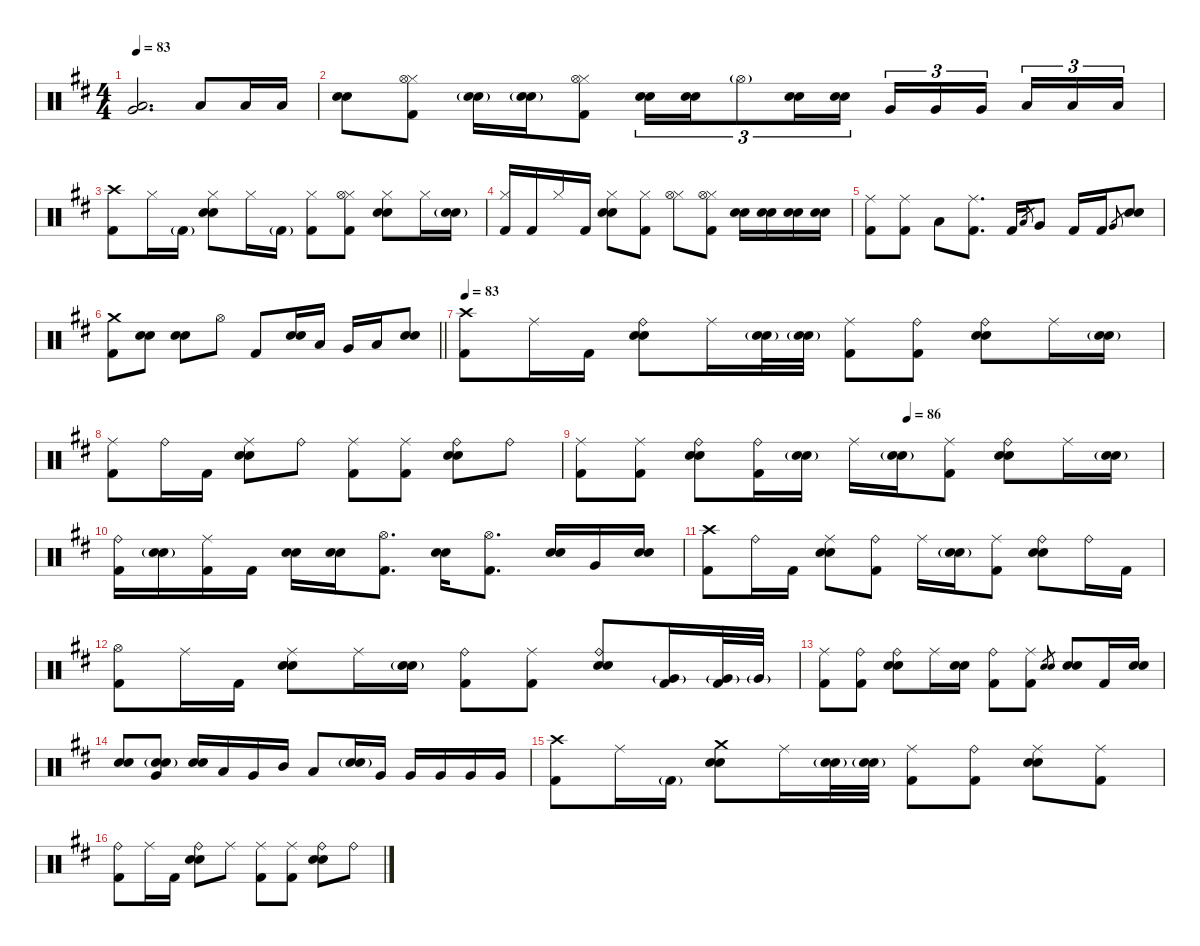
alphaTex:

\defaultSystemsLayout 4
\hideDynamics
\bracketExtendMode nobrackets
\singleTrackTrackNamePolicy hidden
\multiTrackTrackNamePolicy hidden
\firstSystemTrackNameMode fullname
\firstSystemTrackNameOrientation horizontal
\otherSystemsTrackNameOrientation horizontal
\track ("Batterie" "drm.") {defaultSystemsLayout 4 instrument percussion}
\staff {score}
\articulation defaults
\ts (4 4)
\tempo 83
\clef neutral
\ks bminor
("Very Low Tom (hit)"{acc forcenatural} "Low Floor Tom (hit)"{acc forcenatural}).2{d dy f beam Up} "Low Floor Tom (hit)"{acc forcenatural}.8{dy ff beam Up} "Low Floor Tom (hit)"{acc forcenatural}.16{dy f beam Up} "Low Floor Tom (hit)"{acc forcenatural}.16{beam Up} |
("Snare (hit) 2"{acc forcenatural} "Snare (hit) 2"{acc forcenatural}).8{dy mf beam Down} ("Hi-Hat (closed)"{acc forcenatural} "Hi-Hat (open)"{acc forcenatural} "Kick (hit) 2"{acc forcenatural}).8{dy f beam Down} ("Snare (hit) 2"{g acc forcenatural} "Snare (hit) 2"{g acc forcenatural}).16{beam Down} ("Snare (hit) 2"{g acc forcenatural} "Snare (hit) 2"{g acc forcenatural}).16{beam Down} ("Hi-Hat (closed)"{acc forcenatural} "Hi-Hat (open)"{acc forcenatural} "Kick (hit) 2"{acc forcenatural}).8{beam Down} ("Snare (hit) 2"{acc forcenatural} "Snare (hit) 2"{acc forcenatural}).16{tu (3 2) dy mf beam Down} ("Snare (hit) 2"{acc forcenatural} "Snare (hit) 2"{acc forcenatural}).16{tu (3 2) beam Down} "Hi-Hat (open)"{g acc forcenatural}.8{tu (3 2) dy f beam Down} ("Snare (hit) 2"{acc forcenatural} "Snare (hit) 2"{acc forcenatural}).16{tu (3 2) dy mf beam Down} ("Snare (hit) 2"{acc forcenatural} "Snare (hit) 2"{acc forcenatural}).16{tu (3 2) beam Down} "Very Low Tom (hit)"{acc forcenatural}.16{tu (3 2) dy f beam Up} "Very Low Tom (hit)"{acc forcenatural}.16{tu (3 2) beam Up} "Very Low Tom (hit)"{acc forcenatural}.16{tu (3 2) beam Up} "Low Floor Tom (hit)"{acc forcenatural}.16{tu (3 2) beam Up} "Low Floor Tom (hit)"{acc forcenatural}.16{tu (3 2) beam Up} "Low Floor Tom (hit)"{acc forcenatural}.16{tu (3 2) beam Up} |
("Crash high (hit)"{acc forcenatural} "Kick (hit) 2"{acc forcenatural}).8{dy mf beam Down} "Hi-Hat (closed)"{acc forcenatural}.16{dy f beam Down} "Kick (hit) 2"{g acc forcenatural}.16{dy mf beam Down} ("Hi-Hat (closed)"{acc forcenatural} "Snare (hit) 2"{acc forcenatural} "Snare (hit) 2"{acc forcenatural}).8{dy f beam Down} "Hi-Hat (closed)"{acc forcenatural}.16{beam Down} "Kick (hit) 2"{g acc forcenatural}.16{dy mf beam Down} ("Hi-Hat (closed)"{acc forcenatural} "Kick (hit) 2"{acc forcenatural}).8{dy f beam Down} ("Hi-Hat (closed)"{acc forcenatural} "Hi-Hat (open)"{acc forcenatural} "Kick (hit) 2"{acc forcenatural}).8{beam Down} ("Hi-Hat (closed)"{acc forcenatural} "Snare (hit) 2"{acc forcenatural} "Snare (hit) 2"{acc forcenatural}).8{beam Down} "Hi-Hat (closed)"{acc forcenatural}.16{beam Down} ("Snare (hit) 2"{g acc forcenatural} "Snare (hit) 2"{g acc forcenatural}).16{beam Down} |
("Hi-Hat (closed)"{acc forcenatural} "Kick (hit) 2"{acc forcenatural}).16{beam Up} "Kick (hit) 2"{acc forcenatural}.16{dy mf beam Up} "Hi-Hat (closed)"{acc forcenatural}.16{dy f beam Up} "Kick (hit) 2"{acc forcenatural}.16{dy mf beam Up} ("Hi-Hat (closed)"{acc forcenatural} "Snare (hit) 2"{acc forcenatural} "Snare (hit) 2"{acc forcenatural}).8{dy f beam Down} ("Hi-Hat (closed)"{acc forcenatural} "Kick (hit) 2"{acc forcenatural}).8{beam Down} ("Hi-Hat (closed)"{acc forcenatural} "Hi-Hat (open)"{acc forcenatural}).8{beam Down} ("Hi-Hat (closed)"{acc forcenatural} "Hi-Hat (open)"{acc forcenatural} "Kick (hit) 2"{acc forcenatural}).8{beam Down} ("Snare (hit) 2"{acc forcenatural} "Snare (hit) 2"{acc forcenatural}).16{dy mp beam Down} ("Snare (hit) 2"{acc forcenatural} "Snare (hit) 2"{acc forcenatural}).16{beam Down} ("Snare (hit) 2"{acc forcenatural} "Snare (hit) 2"{acc forcenatural}).16{beam Down} ("Snare (hit) 2"{acc forcenatural} "Snare (hit) 2"{acc forcenatural}).16{beam Down} |
("Ride (middle)"{acc forcenatural} "Kick (hit) 2"{acc forcenatural}).8{dy mf beam Down} ("Ride (middle)"{acc forcenatural} "Kick (hit) 2"{acc forcenatural}).8{beam Down} "Low Tom (hit)"{acc forcenatural}.8{dy f beam Down} ("Ride (middle)"{acc forcenatural} "Kick (hit) 2"{acc forcenatural}).8{d dy mf beam Down} "Kick (hit) 2"{acc forcenatural}.16{dy f beam Up} "Low Tom (hit)"{acc forcenatural}.8{gr dy mf beam Up} "Very Low Tom (hit)"{acc forcenatural}.8{dy f beam Up} "Kick (hit) 2"{acc forcenatural}.16{beam Up} "Kick (hit) 2"{acc forcenatural}.16{beam Up} "Very Low Tom (hit)"{acc forcenatural}.8{gr dy mp beam Up} ("Snare (hit) 2"{acc forcenatural} "Snare (hit) 2"{acc forcenatural}).8{dy mf beam Up} |
\barLineRight lightlight
("Crash medium (hit)"{acc forcenatural} "Kick (hit) 2"{acc forcenatural}).8{beam Down} ("Snare (hit) 2"{acc forcenatural} "Snare (hit) 2"{acc forcenatural}).8{beam Down} ("Snare (hit) 2"{acc forcenatural} "Snare (hit) 2"{acc forcenatural}).8{beam Down} "Hi-Hat (open)"{acc forcenatural}.8{beam Down} "Kick (hit) 2"{acc forcenatural}.8{dy f beam Up} ("Snare (hit) 2"{acc forcenatural} "Snare (hit) 2"{acc forcenatural}).16{dy mf beam Up} "Low Tom (hit)"{acc forcenatural}.16{dy f beam Up} "Very Low Tom (hit)"{acc forcenatural}.16{beam Up} "Low Floor Tom (hit)"{acc forcenatural}.16{beam Up} ("Snare (hit) 2"{acc forcenatural} "Snare (hit) 2"{acc forcenatural}).8{dy mf beam Up} |
\tempo 83
("Crash high (hit)"{acc forcenatural} "Kick (hit) 2"{acc forcenatural}).8{beam Down} "Ride (middle)"{acc forcenatural}.16{beam Down} "Kick (hit) 2"{acc forcenatural}.16{beam Down} ("Ride (bell)"{acc forcenatural} "Snare (hit) 2"{acc forcenatural} "Snare (hit) 2"{acc forcenatural}).8{beam Down} "Ride (middle)"{acc forcenatural}.16{beam Down} ("Snare (hit) 2"{g acc forcenatural} "Snare (hit) 2"{g acc forcenatural}).32{dy mp beam Down} ("Snare (hit) 2"{g acc forcenatural} "Snare (hit) 2"{g acc forcenatural}).32{dy mf beam Down} ("Ride (middle)"{acc forcenatural} "Kick (hit) 2"{acc forcenatural}).8{beam Down} ("Ride (bell)"{acc forcenatural} "Kick (hit) 2"{acc forcenatural}).8{beam Down} ("Ride (bell)"{acc forcenatural} "Snare (hit) 2"{acc forcenatural} "Snare (hit) 2"{acc forcenatural}).8{beam Down} "Ride (middle)"{acc forcenatural}.16{beam Down} ("Snare (hit) 2"{g acc forcenatural} "Snare (hit) 2"{g acc forcenatural}).16{dy f beam Down} |
("Ride (middle)"{acc forcenatural} "Kick (hit) 2"{acc forcenatural}).8{dy mf beam Down} "Ride (bell)"{acc forcenatural}.16{beam Down} "Kick (hit) 2"{acc forcenatural}.16{beam Down} ("Ride (middle)"{acc forcenatural} "Snare (hit) 2"{acc forcenatural} "Snare (hit) 2"{acc forcenatural}).8{beam Down} "Ride (bell)"{acc forcenatural}.8{beam Down} ("Ride (middle)"{acc forcenatural} "Kick (hit) 2"{acc forcenatural}).8{beam Down} ("Ride (middle)"{acc forcenatural} "Kick (hit) 2"{acc forcenatural}).8{beam Down} ("Ride (bell)"{acc forcenatural} "Snare (hit) 2"{acc forcenatural} "Snare (hit) 2"{acc forcenatural}).8{beam Down} "Ride (bell)"{acc forcenatural}.8{beam Down} |
\tempo (86 0.5625)
("Ride (middle)"{acc forcenatural} "Kick (hit) 2"{acc forcenatural}).8{beam Down} ("Ride (middle)"{acc forcenatural} "Kick (hit) 2"{acc forcenatural}).8{beam Down} ("Ride (bell)"{acc forcenatural} "Snare (hit) 2"{acc forcenatural} "Snare (hit) 2"{acc forcenatural}).8{beam Down} ("Ride (bell)"{acc forcenatural} "Kick (hit) 2"{acc forcenatural}).16{beam Down} ("Snare (hit) 2"{g acc forcenatural} "Snare (hit) 2"{g acc forcenatural}).16{beam Down} "Ride (middle)"{acc forcenatural}.16{beam Down} ("Snare (hit) 2"{g acc forcenatural} "Snare (hit) 2"{g acc forcenatural}).16{dy f beam Down} ("Ride (middle)"{acc forcenatural} "Kick (hit) 2"{acc forcenatural}).8{dy mf beam Down} ("Ride (bell)"{acc forcenatural} "Snare (hit) 2"{acc forcenatural} "Snare (hit) 2"{acc forcenatural}).8{beam Down} "Ride (middle)"{acc forcenatural}.16{beam Down} ("Snare (hit) 2"{g acc forcenatural} "Snare (hit) 2"{g acc forcenatural}).16{dy f beam Down} |
("Ride (bell)"{acc forcenatural} "Kick (hit) 2"{acc forcenatural}).16{dy mf beam Down} ("Snare (hit) 2"{g acc forcenatural} "Snare (hit) 2"{g acc forcenatural}).16{beam Down} ("Ride (middle)"{acc forcenatural} "Kick (hit) 2"{acc forcenatural}).16{beam Down} "Kick (hit) 2"{acc forcenatural}.16{beam Down} ("Snare (hit) 2"{acc forcenatural} "Snare (hit) 2"{acc forcenatural}).16{beam Down} ("Snare (hit) 2"{acc forcenatural} "Snare (hit) 2"{acc forcenatural}).16{beam Down} ("Hi-Hat (open)"{acc forcenatural} "Kick (hit) 2"{acc forcenatural}).8{d beam Down} ("Snare (hit) 2"{acc forcenatural} "Snare (hit) 2"{acc forcenatural}).16{beam Down} ("Hi-Hat (open)"{acc forcenatural} "Kick (hit) 2"{acc forcenatural}).8{d beam Down} ("Snare (hit) 2"{acc forcenatural} "Snare (hit) 2"{acc forcenatural}).16{beam Up} "Very Low Tom (hit)"{acc forcenatural}.16{dy ff beam Up} ("Snare (hit) 2"{acc forcenatural} "Snare (hit) 2"{acc forcenatural}).16{dy mf beam Up} |
("Crash high (hit)"{acc forcenatural} "Kick (hit) 2"{acc forcenatural}).8{dy mp beam Down} "Ride (bell)"{acc forcenatural}.16{dy mf beam Down} "Kick (hit) 2"{acc forcenatural}.16{beam Down} ("Ride (middle)"{acc forcenatural} "Snare (hit) 2"{acc forcenatural} "Snare (hit) 2"{acc forcenatural}).8{beam Down} ("Ride (bell)"{acc forcenatural} "Kick (hit) 2"{acc forcenatural}).8{beam Down} "Ride (middle)"{acc forcenatural}.16{beam Down} ("Snare (hit) 2"{g acc forcenatural} "Snare (hit) 2"{g acc forcenatural}).16{dy mp beam Down} ("Ride (middle)"{acc forcenatural} "Kick (hit) 2"{acc forcenatural}).8{dy mf beam Down} ("Ride (bell)"{acc forcenatural} "Snare (hit) 2"{acc forcenatural} "Snare (hit) 2"{acc forcenatural}).8{beam Down} "Ride (bell)"{acc forcenatural}.16{beam Down} "Kick (hit) 2"{acc forcenatural}.16{beam Down} |
("Hi-Hat (open)"{acc forcenatural} "Kick (hit) 2"{acc forcenatural}).8{beam Down} "Ride (middle)"{acc forcenatural}.16{beam Down} "Kick (hit) 2"{acc forcenatural}.16{beam Down} ("Ride (middle)"{acc forcenatural} "Snare (hit) 2"{acc forcenatural} "Snare (hit) 2"{acc forcenatural}).8{beam Down} "Ride (middle)"{acc forcenatural}.16{beam Down} ("Snare (hit) 2"{g acc forcenatural} "Snare (hit) 2"{g acc forcenatural}).16{dy mp beam Down} ("Ride (bell)"{acc forcenatural} "Kick (hit) 2"{acc forcenatural}).8{dy mf beam Down} ("Ride (middle)"{acc forcenatural} "Kick (hit) 2"{acc forcenatural}).8{beam Down} ("Ride (bell)"{acc forcenatural} "Snare (hit) 2"{acc forcenatural} "Snare (hit) 2"{acc forcenatural}).8{beam Up} ("Very Low Tom (hit)"{g acc forcenatural} "Kick (hit) 2"{acc forcenatural}).16{beam Up} ("Very Low Tom (hit)"{g acc forcenatural} "Kick (hit) 2"{acc forcenatural}).32{beam Up} "Very Low Tom (hit)"{g acc forcenatural}.32{dy f beam Up} |
("Ride (middle)"{acc forcenatural} "Kick (hit) 2"{acc forcenatural}).8{dy mf beam Down} ("Ride (bell)"{acc forcenatural} "Kick (hit) 2"{acc forcenatural}).8{beam Down} ("Ride (bell)"{acc forcenatural} "Snare (hit) 2"{acc forcenatural} "Snare (hit) 2"{acc forcenatural}).8{beam Down} "Ride (middle)"{acc forcenatural}.16{beam Down} ("Snare (hit) 2"{acc forcenatural} "Snare (hit) 2"{acc forcenatural}).16{beam Down} ("Ride (bell)"{acc forcenatural} "Kick (hit) 2"{acc forcenatural}).8{beam Down} ("Ride (middle)"{acc forcenatural} "Kick (hit) 2"{acc forcenatural}).8{beam Down} ("Electric Snare (hit)"{acc forcenatural} "Snare (hit) 2"{acc forcenatural}).8{gr dy p beam Up} ("Snare (hit) 2"{acc forcenatural} "Snare (hit) 2"{acc forcenatural}).8{dy mf beam Up} "Kick (hit) 2"{acc forcenatural}.16{beam Up} ("Snare (hit) 2"{acc forcenatural} "Snare (hit) 2"{acc forcenatural}).16{beam Up} |
("Snare (hit) 2"{acc forcenatural} "Snare (hit) 2"{acc forcenatural}).8{dy f beam Up} ("Snare (hit) 2"{g acc forcenatural} "Snare (hit) 2"{g acc forcenatural} "Very Low Tom (hit)"{acc forcenatural}).8{beam Up} ("Snare (hit) 2"{acc forcenatural} "Snare (hit) 2"{acc forcenatural}).16{beam Up} "Low Tom (hit)"{acc forcenatural}.16{beam Up} "Very Low Tom (hit)"{acc forcenatural}.16{beam Up} "Mid Tom (hit)"{acc forcenatural}.16{beam Up} "Low Tom (hit)"{acc forcenatural}.8{beam Up} ("Snare (hit) 2"{g acc forcenatural} "Snare (hit) 2"{g acc forcenatural}).16{beam Up} "Very Low Tom (hit)"{acc forcenatural}.16{beam Up} "Very Low Tom (hit)"{acc forcenatural}.16{beam Up} "Very Low Tom (hit)"{acc forcenatural}.16{beam Up} "Very Low Tom (hit)"{acc forcenatural}.16{beam Up} "Very Low Tom (hit)"{acc forcenatural}.16{beam Up} |
("Crash high (hit)"{acc forcenatural} "Kick (hit) 2"{acc forcenatural}).8{dy mf beam Down} "Ride (middle)"{acc forcenatural}.16{beam Down} "Kick (hit) 2"{g acc forcenatural}.16{dy f beam Down} ("Crash medium (hit)"{acc forcenatural} "Snare (hit) 2"{acc forcenatural} "Snare (hit) 2"{acc forcenatural}).8{dy mf beam Down} "Ride (middle)"{acc forcenatural}.16{beam Down} ("Snare (hit) 2"{g acc forcenatural} "Snare (hit) 2"{g acc forcenatural}).32{dy mp beam Down} ("Snare (hit) 2"{g acc forcenatural} "Snare (hit) 2"{g acc forcenatural}).32{beam Down} ("Ride (middle)"{acc forcenatural} "Kick (hit) 2"{acc forcenatural}).8{dy mf beam Down} ("Ride (bell)"{acc forcenatural} "Kick (hit) 2"{acc forcenatural}).8{beam Down} ("Ride (middle)"{acc forcenatural} "Snare (hit) 2"{acc forcenatural} "Snare (hit) 2"{acc forcenatural}).8{beam Down} ("Ride (middle)"{acc forcenatural} "Kick (hit) 2"{acc forcenatural}).8{beam Down} |
("Ride (bell)"{acc forcenatural} "Kick (hit) 2"{acc forcenatural}).8{beam Down} "Ride (middle)"{acc forcenatural}.16{beam Down} "Kick (hit) 2"{acc forcenatural}.16{beam Down} ("Ride (bell)"{acc forcenatural} "Snare (hit) 2"{acc forcenatural} "Snare (hit) 2"{acc forcenatural}).8{beam Down} "Ride (middle)"{acc forcenatural}.8{beam Down} ("Ride (middle)"{acc forcenatural} "Kick (hit) 2"{acc forcenatural}).8{beam Down} ("Ride (middle)"{acc forcenatural} "Kick (hit) 2"{acc forcenatural}).8{beam Down} ("Ride (bell)"{acc forcenatural} "Snare (hit) 2"{acc forcenatural} "Snare (hit) 2"{acc forcenatural}).8{beam Down} "Ride (bell)"{acc forcenatural}.8{beam Down}
